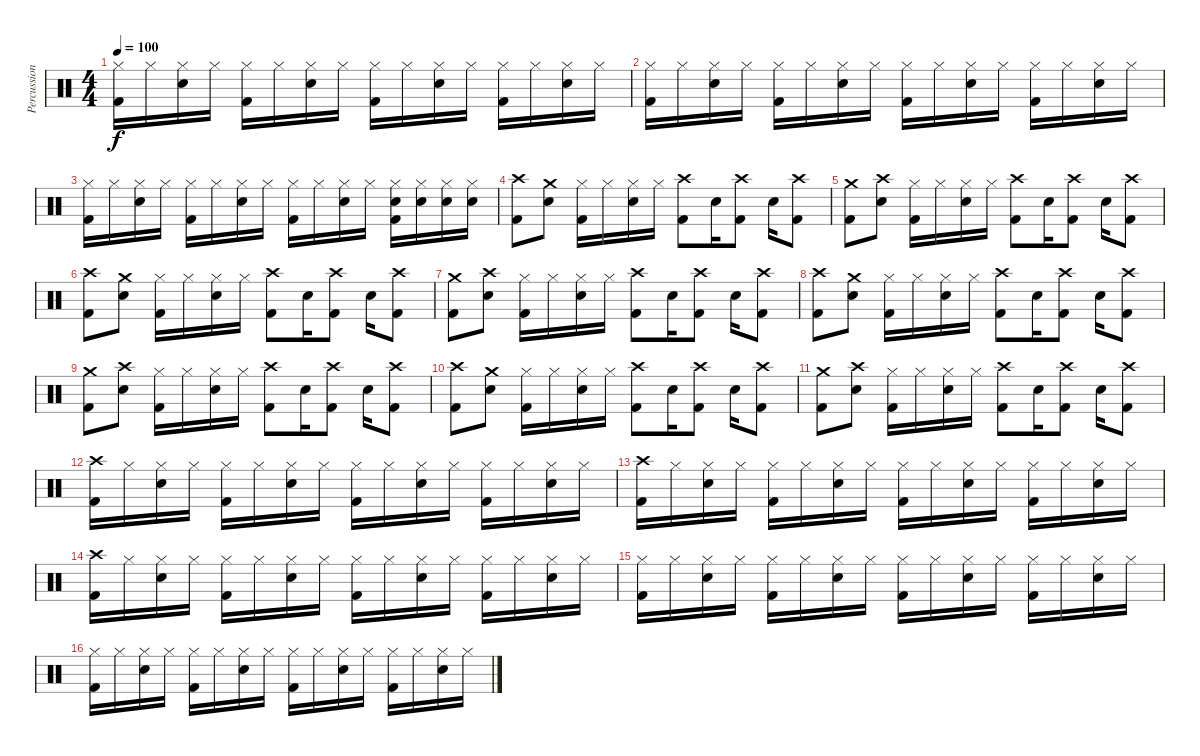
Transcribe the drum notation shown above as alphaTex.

\track ("Percussion" "Percussion") {instrument percussion}
\staff {score}
\articulation defaults
\ts (4 4)
\tempo 100
\clef neutral
\ks c
("Hi-Hat (closed)" "Kick (hit) 2").16{dy f} "Hi-Hat (closed)".16 ("Hi-Hat (closed)" "Snare (hit) 2").16 "Hi-Hat (closed)".16 ("Hi-Hat (closed)" "Kick (hit) 2").16 "Hi-Hat (closed)".16 ("Hi-Hat (closed)" "Snare (hit) 2").16 "Hi-Hat (closed)".16 ("Hi-Hat (closed)" "Kick (hit) 2").16 "Hi-Hat (closed)".16 ("Hi-Hat (closed)" "Snare (hit) 2").16 "Hi-Hat (closed)".16 ("Hi-Hat (closed)" "Kick (hit) 2").16 "Hi-Hat (closed)".16 ("Hi-Hat (closed)" "Snare (hit) 2").16 "Hi-Hat (closed)".16 |
("Hi-Hat (closed)" "Kick (hit) 2").16 "Hi-Hat (closed)".16 ("Hi-Hat (closed)" "Snare (hit) 2").16 "Hi-Hat (closed)".16 ("Hi-Hat (closed)" "Kick (hit) 2").16 "Hi-Hat (closed)".16 ("Hi-Hat (closed)" "Snare (hit) 2").16 "Hi-Hat (closed)".16 ("Hi-Hat (closed)" "Kick (hit) 2").16 "Hi-Hat (closed)".16 ("Hi-Hat (closed)" "Snare (hit) 2").16 "Hi-Hat (closed)".16 ("Hi-Hat (closed)" "Kick (hit) 2").16 "Hi-Hat (closed)".16 ("Hi-Hat (closed)" "Snare (hit) 2").16 "Hi-Hat (closed)".16 |
("Hi-Hat (closed)" "Kick (hit) 2").16 "Hi-Hat (closed)".16 ("Hi-Hat (closed)" "Snare (hit) 2").16 "Hi-Hat (closed)".16 ("Hi-Hat (closed)" "Kick (hit) 2").16 "Hi-Hat (closed)".16 ("Hi-Hat (closed)" "Snare (hit) 2").16 "Hi-Hat (closed)".16 ("Hi-Hat (closed)" "Kick (hit) 2").16 "Hi-Hat (closed)".16 ("Hi-Hat (closed)" "Snare (hit) 2").16 "Hi-Hat (closed)".16 ("Hi-Hat (closed)" "Snare (hit) 2" "Kick (hit) 2").16 ("Hi-Hat (closed)" "Snare (hit) 2").16 ("Hi-Hat (closed)" "Snare (hit) 2").16 ("Hi-Hat (closed)" "Snare (hit) 2").16 |
("Crash high (hit)" "Kick (hit) 2").8 ("Crash medium (hit)" "Snare (hit) 2").8 ("Hi-Hat (closed)" "Kick (hit) 2").16 "Hi-Hat (closed)".16 ("Hi-Hat (closed)" "Snare (hit) 2").16 "Hi-Hat (closed)".16 ("Crash high (hit)" "Kick (hit) 2").8 "Snare (hit) 2".16 ("Crash high (hit)" "Kick (hit) 2").8 "Snare (hit) 2".16 ("Crash high (hit)" "Kick (hit) 2").8 |
("Crash medium (hit)" "Kick (hit) 2").8 ("Crash high (hit)" "Snare (hit) 2").8 ("Hi-Hat (closed)" "Kick (hit) 2").16 "Hi-Hat (closed)".16 ("Hi-Hat (closed)" "Snare (hit) 2").16 "Hi-Hat (closed)".16 ("Crash high (hit)" "Kick (hit) 2").8 "Snare (hit) 2".16 ("Crash high (hit)" "Kick (hit) 2").8 "Snare (hit) 2".16 ("Crash high (hit)" "Kick (hit) 2").8 |
("Crash high (hit)" "Kick (hit) 2").8 ("Crash medium (hit)" "Snare (hit) 2").8 ("Hi-Hat (closed)" "Kick (hit) 2").16 "Hi-Hat (closed)".16 ("Hi-Hat (closed)" "Snare (hit) 2").16 "Hi-Hat (closed)".16 ("Crash high (hit)" "Kick (hit) 2").8 "Snare (hit) 2".16 ("Crash high (hit)" "Kick (hit) 2").8 "Snare (hit) 2".16 ("Crash high (hit)" "Kick (hit) 2").8 |
("Crash medium (hit)" "Kick (hit) 2").8 ("Crash high (hit)" "Snare (hit) 2").8 ("Hi-Hat (closed)" "Kick (hit) 2").16 "Hi-Hat (closed)".16 ("Hi-Hat (closed)" "Snare (hit) 2").16 "Hi-Hat (closed)".16 ("Crash high (hit)" "Kick (hit) 2").8 "Snare (hit) 2".16 ("Crash high (hit)" "Kick (hit) 2").8 "Snare (hit) 2".16 ("Crash high (hit)" "Kick (hit) 2").8 |
("Crash high (hit)" "Kick (hit) 2").8 ("Crash medium (hit)" "Snare (hit) 2").8 ("Hi-Hat (closed)" "Kick (hit) 2").16 "Hi-Hat (closed)".16 ("Hi-Hat (closed)" "Snare (hit) 2").16 "Hi-Hat (closed)".16 ("Crash high (hit)" "Kick (hit) 2").8 "Snare (hit) 2".16 ("Crash high (hit)" "Kick (hit) 2").8 "Snare (hit) 2".16 ("Crash high (hit)" "Kick (hit) 2").8 |
("Crash medium (hit)" "Kick (hit) 2").8 ("Crash high (hit)" "Snare (hit) 2").8 ("Hi-Hat (closed)" "Kick (hit) 2").16 "Hi-Hat (closed)".16 ("Hi-Hat (closed)" "Snare (hit) 2").16 "Hi-Hat (closed)".16 ("Crash high (hit)" "Kick (hit) 2").8 "Snare (hit) 2".16 ("Crash high (hit)" "Kick (hit) 2").8 "Snare (hit) 2".16 ("Crash high (hit)" "Kick (hit) 2").8 |
("Crash high (hit)" "Kick (hit) 2").8 ("Crash medium (hit)" "Snare (hit) 2").8 ("Hi-Hat (closed)" "Kick (hit) 2").16 "Hi-Hat (closed)".16 ("Hi-Hat (closed)" "Snare (hit) 2").16 "Hi-Hat (closed)".16 ("Crash high (hit)" "Kick (hit) 2").8 "Snare (hit) 2".16 ("Crash high (hit)" "Kick (hit) 2").8 "Snare (hit) 2".16 ("Crash high (hit)" "Kick (hit) 2").8 |
("Crash medium (hit)" "Kick (hit) 2").8 ("Crash high (hit)" "Snare (hit) 2").8 ("Hi-Hat (closed)" "Kick (hit) 2").16 "Hi-Hat (closed)".16 ("Hi-Hat (closed)" "Snare (hit) 2").16 "Hi-Hat (closed)".16 ("Crash high (hit)" "Kick (hit) 2").8 "Snare (hit) 2".16 ("Crash high (hit)" "Kick (hit) 2").8 "Snare (hit) 2".16 ("Crash high (hit)" "Kick (hit) 2").8 |
("Crash high (hit)" "Kick (hit) 2").16 "Hi-Hat (closed)".16 ("Hi-Hat (closed)" "Snare (hit) 2").16 "Hi-Hat (closed)".16 ("Hi-Hat (closed)" "Kick (hit) 2").16 "Hi-Hat (closed)".16 ("Hi-Hat (closed)" "Snare (hit) 2").16 "Hi-Hat (closed)".16 ("Hi-Hat (closed)" "Kick (hit) 2").16 "Hi-Hat (closed)".16 ("Hi-Hat (closed)" "Snare (hit) 2").16 "Hi-Hat (closed)".16 ("Hi-Hat (closed)" "Kick (hit) 2").16 "Hi-Hat (closed)".16 ("Hi-Hat (closed)" "Snare (hit) 2").16 "Hi-Hat (closed)".16 |
("Crash high (hit)" "Kick (hit) 2").16 "Hi-Hat (closed)".16 ("Hi-Hat (closed)" "Snare (hit) 2").16 "Hi-Hat (closed)".16 ("Hi-Hat (closed)" "Kick (hit) 2").16 "Hi-Hat (closed)".16 ("Hi-Hat (closed)" "Snare (hit) 2").16 "Hi-Hat (closed)".16 ("Hi-Hat (closed)" "Kick (hit) 2").16 "Hi-Hat (closed)".16 ("Hi-Hat (closed)" "Snare (hit) 2").16 "Hi-Hat (closed)".16 ("Hi-Hat (closed)" "Kick (hit) 2").16 "Hi-Hat (closed)".16 ("Hi-Hat (closed)" "Snare (hit) 2").16 "Hi-Hat (closed)".16 |
("Crash high (hit)" "Kick (hit) 2").16 "Hi-Hat (closed)".16 ("Hi-Hat (closed)" "Snare (hit) 2").16 "Hi-Hat (closed)".16 ("Hi-Hat (closed)" "Kick (hit) 2").16 "Hi-Hat (closed)".16 ("Hi-Hat (closed)" "Snare (hit) 2").16 "Hi-Hat (closed)".16 ("Hi-Hat (closed)" "Kick (hit) 2").16 "Hi-Hat (closed)".16 ("Hi-Hat (closed)" "Snare (hit) 2").16 "Hi-Hat (closed)".16 ("Hi-Hat (closed)" "Kick (hit) 2").16 "Hi-Hat (closed)".16 ("Hi-Hat (closed)" "Snare (hit) 2").16 "Hi-Hat (closed)".16 |
("Hi-Hat (closed)" "Kick (hit) 2").16 "Hi-Hat (closed)".16 ("Hi-Hat (closed)" "Snare (hit) 2").16 "Hi-Hat (closed)".16 ("Hi-Hat (closed)" "Kick (hit) 2").16 "Hi-Hat (closed)".16 ("Hi-Hat (closed)" "Snare (hit) 2").16 "Hi-Hat (closed)".16 ("Hi-Hat (closed)" "Kick (hit) 2").16 "Hi-Hat (closed)".16 ("Hi-Hat (closed)" "Snare (hit) 2").16 "Hi-Hat (closed)".16 ("Hi-Hat (closed)" "Kick (hit) 2").16 "Hi-Hat (closed)".16 ("Hi-Hat (closed)" "Snare (hit) 2").16 "Hi-Hat (closed)".16 |
("Hi-Hat (closed)" "Kick (hit) 2").16 "Hi-Hat (closed)".16 ("Hi-Hat (closed)" "Snare (hit) 2").16 "Hi-Hat (closed)".16 ("Hi-Hat (closed)" "Kick (hit) 2").16 "Hi-Hat (closed)".16 ("Hi-Hat (closed)" "Snare (hit) 2").16 "Hi-Hat (closed)".16 ("Hi-Hat (closed)" "Kick (hit) 2").16 "Hi-Hat (closed)".16 ("Hi-Hat (closed)" "Snare (hit) 2").16 "Hi-Hat (closed)".16 ("Hi-Hat (closed)" "Kick (hit) 2").16 "Hi-Hat (closed)".16 ("Hi-Hat (closed)" "Snare (hit) 2").16 "Hi-Hat (closed)".16
